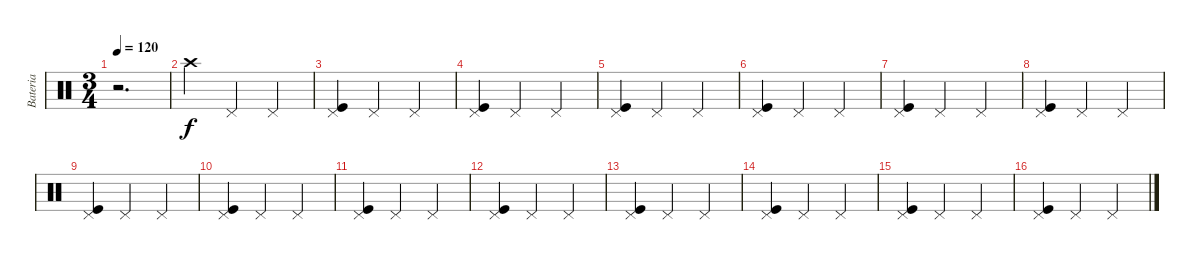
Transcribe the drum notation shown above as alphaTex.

\track ("Bateria" "Bateria") {instrument percussion}
\staff {score}
\articulation defaults
\ts (3 4)
\tempo 120
\clef neutral
\ks c
r.2{d dy f} |
"Crash high (hit)".4 "Pedal Hi-Hat (hit)".4 "Pedal Hi-Hat (hit)".4 |
("Pedal Hi-Hat (hit)" "Kick (hit)").4 "Pedal Hi-Hat (hit)".4 "Pedal Hi-Hat (hit)".4 |
("Pedal Hi-Hat (hit)" "Kick (hit)").4 "Pedal Hi-Hat (hit)".4 "Pedal Hi-Hat (hit)".4 |
("Pedal Hi-Hat (hit)" "Kick (hit)").4 "Pedal Hi-Hat (hit)".4 "Pedal Hi-Hat (hit)".4 |
("Pedal Hi-Hat (hit)" "Kick (hit)").4 "Pedal Hi-Hat (hit)".4 "Pedal Hi-Hat (hit)".4 |
("Pedal Hi-Hat (hit)" "Kick (hit)").4 "Pedal Hi-Hat (hit)".4 "Pedal Hi-Hat (hit)".4 |
("Pedal Hi-Hat (hit)" "Kick (hit)").4 "Pedal Hi-Hat (hit)".4 "Pedal Hi-Hat (hit)".4 |
("Pedal Hi-Hat (hit)" "Kick (hit)").4 "Pedal Hi-Hat (hit)".4 "Pedal Hi-Hat (hit)".4 |
("Pedal Hi-Hat (hit)" "Kick (hit)").4 "Pedal Hi-Hat (hit)".4 "Pedal Hi-Hat (hit)".4 |
("Pedal Hi-Hat (hit)" "Kick (hit)").4 "Pedal Hi-Hat (hit)".4 "Pedal Hi-Hat (hit)".4 |
("Pedal Hi-Hat (hit)" "Kick (hit)").4 "Pedal Hi-Hat (hit)".4 "Pedal Hi-Hat (hit)".4 |
("Pedal Hi-Hat (hit)" "Kick (hit)").4 "Pedal Hi-Hat (hit)".4 "Pedal Hi-Hat (hit)".4 |
("Pedal Hi-Hat (hit)" "Kick (hit)").4 "Pedal Hi-Hat (hit)".4 "Pedal Hi-Hat (hit)".4 |
("Pedal Hi-Hat (hit)" "Kick (hit)").4 "Pedal Hi-Hat (hit)".4 "Pedal Hi-Hat (hit)".4 |
("Pedal Hi-Hat (hit)" "Kick (hit)").4 "Pedal Hi-Hat (hit)".4 "Pedal Hi-Hat (hit)".4
